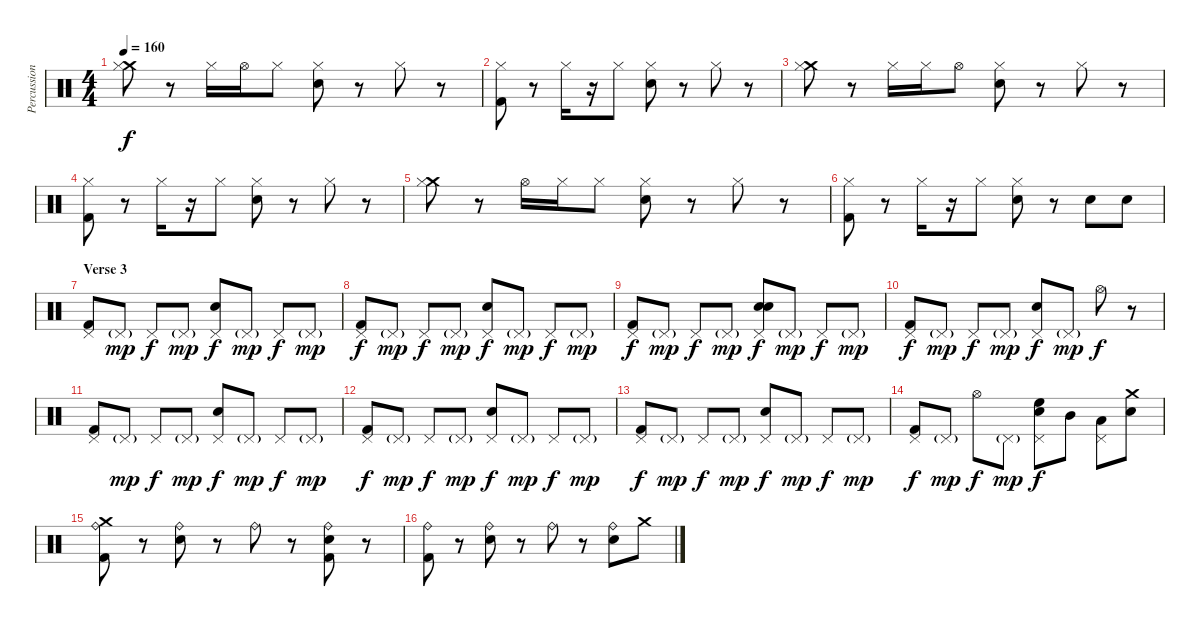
\track ("Percussion" "Percussion") {instrument percussion}
\staff {score}
\articulation defaults
\ts (4 4)
\tempo 160
\clef neutral
\ks c
("Crash medium (hit)" "Hi-Hat (closed)").8{dy f} r.8 "Hi-Hat (closed)".16 "Hi-Hat (open)".16 "Hi-Hat (closed)".8 ("Electric Snare (hit)" "Hi-Hat (closed)").8 r.8 "Hi-Hat (closed)".8 r.8 |
("Hi-Hat (closed)" "Kick (hit) 2").8 r.8 "Hi-Hat (closed)".16 r.16 "Hi-Hat (closed)".8 ("Electric Snare (hit)" "Hi-Hat (closed)").8 r.8 "Hi-Hat (closed)".8 r.8 |
("Crash medium (hit)" "Hi-Hat (closed)").8 r.8 "Hi-Hat (closed)".16 "Hi-Hat (closed)".16 "Hi-Hat (open)".8 ("Electric Snare (hit)" "Hi-Hat (closed)").8 r.8 "Hi-Hat (closed)".8 r.8 |
("Hi-Hat (closed)" "Kick (hit) 2").8 r.8 "Hi-Hat (closed)".16 r.16 "Hi-Hat (closed)".8 ("Electric Snare (hit)" "Hi-Hat (closed)").8 r.8 "Hi-Hat (closed)".8 r.8 |
("Crash medium (hit)" "Hi-Hat (closed)").8 r.8 "Hi-Hat (open)".16 "Hi-Hat (closed)".16 "Hi-Hat (closed)".8 ("Electric Snare (hit)" "Hi-Hat (closed)").8 r.8 "Hi-Hat (closed)".8 r.8 |
("Hi-Hat (closed)" "Kick (hit) 2").8 r.8 "Hi-Hat (closed)".16 r.16 "Hi-Hat (closed)".8 ("Electric Snare (hit)" "Hi-Hat (closed)").8 r.8 "Electric Snare (hit)".8 "Electric Snare (hit)".8 |
\section ("" "Verse 3")
("Pedal Hi-Hat (hit)" "Kick (hit) 2").8 "Pedal Hi-Hat (hit)"{g}.8{dy mp} "Pedal Hi-Hat (hit)".8{dy f} "Pedal Hi-Hat (hit)"{g}.8{dy mp} ("Pedal Hi-Hat (hit)" "Electric Snare (hit)").8{dy f} "Pedal Hi-Hat (hit)"{g}.8{dy mp} "Pedal Hi-Hat (hit)".8{dy f} "Pedal Hi-Hat (hit)"{g}.8{dy mp} |
("Pedal Hi-Hat (hit)" "Kick (hit) 2").8{dy f} "Pedal Hi-Hat (hit)"{g}.8{dy mp} "Pedal Hi-Hat (hit)".8{dy f} "Pedal Hi-Hat (hit)"{g}.8{dy mp} ("Pedal Hi-Hat (hit)" "Electric Snare (hit)").8{dy f} "Pedal Hi-Hat (hit)"{g}.8{dy mp} "Pedal Hi-Hat (hit)".8{dy f} "Pedal Hi-Hat (hit)"{g}.8{dy mp} |
("Pedal Hi-Hat (hit)" "Kick (hit) 2").8{dy f} "Pedal Hi-Hat (hit)"{g}.8{dy mp} "Pedal Hi-Hat (hit)".8{dy f} "Pedal Hi-Hat (hit)"{g}.8{dy mp} ("Snare (hit)" "Pedal Hi-Hat (hit)" "Electric Snare (hit)").8{dy f} "Pedal Hi-Hat (hit)"{g}.8{dy mp} "Pedal Hi-Hat (hit)".8{dy f} "Pedal Hi-Hat (hit)"{g}.8{dy mp} |
("Pedal Hi-Hat (hit)" "Kick (hit) 2").8{dy f} "Pedal Hi-Hat (hit)"{g}.8{dy mp} "Pedal Hi-Hat (hit)".8{dy f} "Pedal Hi-Hat (hit)"{g}.8{dy mp} ("Pedal Hi-Hat (hit)" "Electric Snare (hit)").8{dy f} "Pedal Hi-Hat (hit)"{g}.8{dy mp} "Hi-Hat (open)".8{dy f} r.8 |
("Pedal Hi-Hat (hit)" "Kick (hit) 2").8 "Pedal Hi-Hat (hit)"{g}.8{dy mp} "Pedal Hi-Hat (hit)".8{dy f} "Pedal Hi-Hat (hit)"{g}.8{dy mp} ("Pedal Hi-Hat (hit)" "Electric Snare (hit)").8{dy f} "Pedal Hi-Hat (hit)"{g}.8{dy mp} "Pedal Hi-Hat (hit)".8{dy f} "Pedal Hi-Hat (hit)"{g}.8{dy mp} |
("Pedal Hi-Hat (hit)" "Kick (hit) 2").8{dy f} "Pedal Hi-Hat (hit)"{g}.8{dy mp} "Pedal Hi-Hat (hit)".8{dy f} "Pedal Hi-Hat (hit)"{g}.8{dy mp} ("Pedal Hi-Hat (hit)" "Electric Snare (hit)").8{dy f} "Pedal Hi-Hat (hit)"{g}.8{dy mp} "Pedal Hi-Hat (hit)".8{dy f} "Pedal Hi-Hat (hit)"{g}.8{dy mp} |
("Pedal Hi-Hat (hit)" "Kick (hit) 2").8{dy f} "Pedal Hi-Hat (hit)"{g}.8{dy mp} "Pedal Hi-Hat (hit)".8{dy f} "Pedal Hi-Hat (hit)"{g}.8{dy mp} ("Pedal Hi-Hat (hit)" "Electric Snare (hit)").8{dy f} "Pedal Hi-Hat (hit)"{g}.8{dy mp} "Pedal Hi-Hat (hit)".8{dy f} "Pedal Hi-Hat (hit)"{g}.8{dy mp} |
("Pedal Hi-Hat (hit)" "Kick (hit) 2").8{dy f} "Pedal Hi-Hat (hit)"{g}.8{dy mp} "Hi-Hat (open)".8{dy f} "Pedal Hi-Hat (hit)"{g}.8{dy mp} ("High Floor Tom (hit)" "Pedal Hi-Hat (hit)" "Electric Snare (hit)").8{dy f} "Mid Tom (hit)".8 ("Low Tom (hit)" "Pedal Hi-Hat (hit)").8 ("Electric Snare (hit)" "Crash medium (hit)").8 |
("Crash medium (hit)" "Ride (bell)" "Kick (hit) 2").8 r.8 ("Ride (bell)" "Electric Snare (hit)").8 r.8 "Ride (bell)".8 r.8 ("Kick (hit) 2" "Ride (bell)" "Electric Snare (hit)").8 r.8 |
("Ride (bell)" "Kick (hit) 2").8 r.8 ("Ride (bell)" "Electric Snare (hit)").8 r.8 "Ride (bell)".8 r.8 ("Ride (bell)" "Electric Snare (hit)").8 "Crash medium (hit)".8
